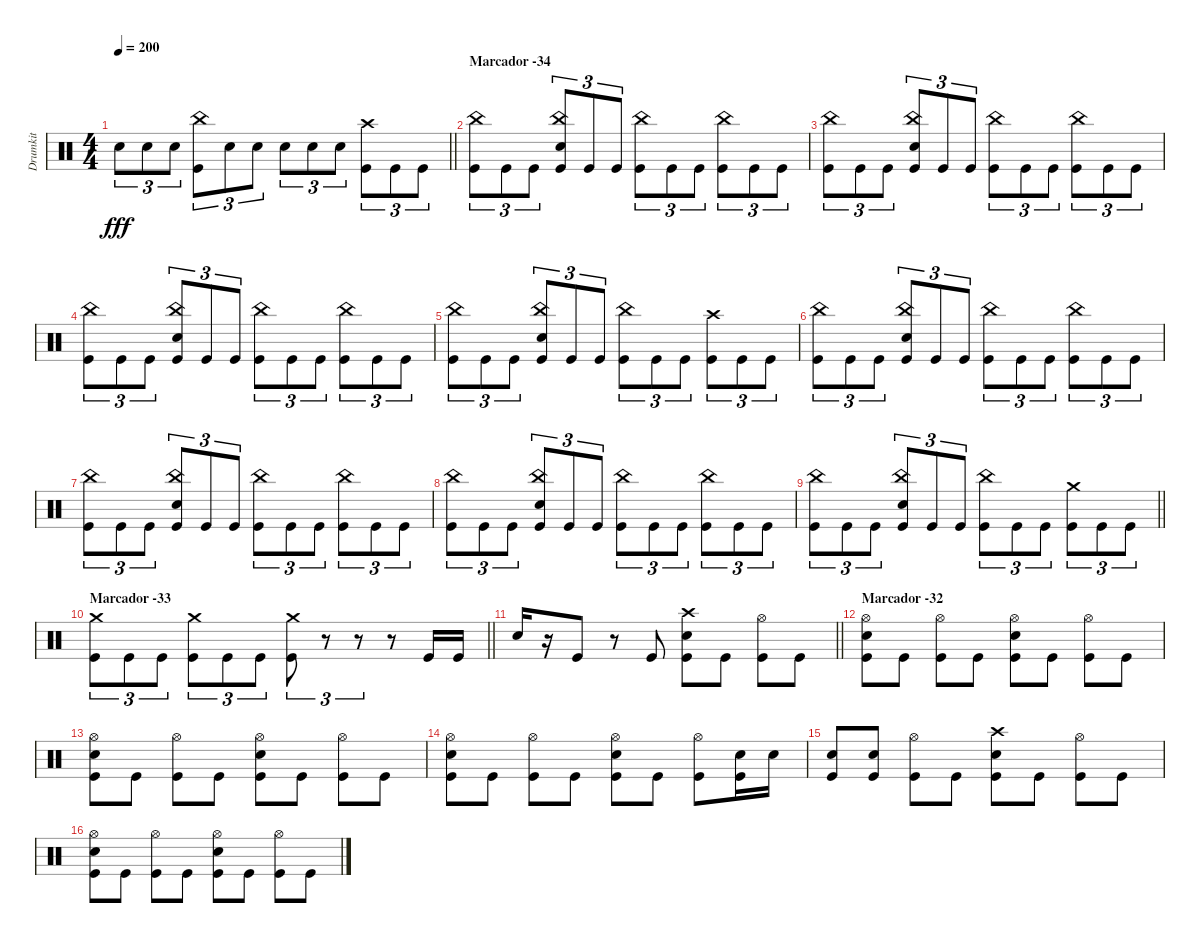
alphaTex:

\track ("Drumkit" "Drumkit") {instrument percussion}
\staff {score}
\articulation defaults
\ts (4 4)
\tempo 200
\clef neutral
\barLineRight lightlight
\ks c "Snare (hit) 2".8{tu (3 2) dy fff} "Snare (hit) 2".8{tu (3 2)} "Snare (hit) 2".8{tu (3 2)}
("China (hit)" "Kick (hit)").8{tu (3 2)} "Snare (hit) 2".8{tu (3 2)} "Snare (hit) 2".8{tu (3 2)} "Snare (hit) 2".8{tu (3 2)} "Snare (hit) 2".8{tu (3 2)} "Snare (hit) 2".8{tu (3 2)} ("Crash high (hit)" "Kick (hit)").8{tu (3 2)} "Kick (hit)".8{tu (3 2)} "Kick (hit)".8{tu (3 2)} |
\section ("" "Marcador -34")
("China (hit)" "Kick (hit)").8{tu (3 2)} "Kick (hit)".8{tu (3 2)} "Kick (hit)".8{tu (3 2)} ("China (hit)" "Snare (hit) 2" "Kick (hit)").8{tu (3 2)} "Kick (hit)".8{tu (3 2)} "Kick (hit)".8{tu (3 2)} ("China (hit)" "Kick (hit)").8{tu (3 2)} "Kick (hit)".8{tu (3 2)} "Kick (hit)".8{tu (3 2)} ("China (hit)" "Kick (hit)").8{tu (3 2)} "Kick (hit)".8{tu (3 2)} "Kick (hit)".8{tu (3 2)} |
("China (hit)" "Kick (hit)").8{tu (3 2)} "Kick (hit)".8{tu (3 2)} "Kick (hit)".8{tu (3 2)} ("China (hit)" "Snare (hit) 2" "Kick (hit)").8{tu (3 2)} "Kick (hit)".8{tu (3 2)} "Kick (hit)".8{tu (3 2)} ("China (hit)" "Kick (hit)").8{tu (3 2)} "Kick (hit)".8{tu (3 2)} "Kick (hit)".8{tu (3 2)} ("China (hit)" "Kick (hit)").8{tu (3 2)} "Kick (hit)".8{tu (3 2)} "Kick (hit)".8{tu (3 2)} |
("China (hit)" "Kick (hit)").8{tu (3 2)} "Kick (hit)".8{tu (3 2)} "Kick (hit)".8{tu (3 2)} ("China (hit)" "Snare (hit) 2" "Kick (hit)").8{tu (3 2)} "Kick (hit)".8{tu (3 2)} "Kick (hit)".8{tu (3 2)} ("China (hit)" "Kick (hit)").8{tu (3 2)} "Kick (hit)".8{tu (3 2)} "Kick (hit)".8{tu (3 2)} ("China (hit)" "Kick (hit)").8{tu (3 2)} "Kick (hit)".8{tu (3 2)} "Kick (hit)".8{tu (3 2)} |
("China (hit)" "Kick (hit)").8{tu (3 2)} "Kick (hit)".8{tu (3 2)} "Kick (hit)".8{tu (3 2)} ("China (hit)" "Snare (hit) 2" "Kick (hit)").8{tu (3 2)} "Kick (hit)".8{tu (3 2)} "Kick (hit)".8{tu (3 2)} ("China (hit)" "Kick (hit)").8{tu (3 2)} "Kick (hit)".8{tu (3 2)} "Kick (hit)".8{tu (3 2)} ("Crash high (hit)" "Kick (hit)").8{tu (3 2)} "Kick (hit)".8{tu (3 2)} "Kick (hit)".8{tu (3 2)} |
("China (hit)" "Kick (hit)").8{tu (3 2)} "Kick (hit)".8{tu (3 2)} "Kick (hit)".8{tu (3 2)} ("China (hit)" "Snare (hit) 2" "Kick (hit)").8{tu (3 2)} "Kick (hit)".8{tu (3 2)} "Kick (hit)".8{tu (3 2)} ("China (hit)" "Kick (hit)").8{tu (3 2)} "Kick (hit)".8{tu (3 2)} "Kick (hit)".8{tu (3 2)} ("China (hit)" "Kick (hit)").8{tu (3 2)} "Kick (hit)".8{tu (3 2)} "Kick (hit)".8{tu (3 2)} |
("China (hit)" "Kick (hit)").8{tu (3 2)} "Kick (hit)".8{tu (3 2)} "Kick (hit)".8{tu (3 2)} ("China (hit)" "Snare (hit) 2" "Kick (hit)").8{tu (3 2)} "Kick (hit)".8{tu (3 2)} "Kick (hit)".8{tu (3 2)} ("China (hit)" "Kick (hit)").8{tu (3 2)} "Kick (hit)".8{tu (3 2)} "Kick (hit)".8{tu (3 2)} ("China (hit)" "Kick (hit)").8{tu (3 2)} "Kick (hit)".8{tu (3 2)} "Kick (hit)".8{tu (3 2)} |
("China (hit)" "Kick (hit)").8{tu (3 2)} "Kick (hit)".8{tu (3 2)} "Kick (hit)".8{tu (3 2)} ("China (hit)" "Snare (hit) 2" "Kick (hit)").8{tu (3 2)} "Kick (hit)".8{tu (3 2)} "Kick (hit)".8{tu (3 2)} ("China (hit)" "Kick (hit)").8{tu (3 2)} "Kick (hit)".8{tu (3 2)} "Kick (hit)".8{tu (3 2)} ("China (hit)" "Kick (hit)").8{tu (3 2)} "Kick (hit)".8{tu (3 2)} "Kick (hit)".8{tu (3 2)} |
\barLineRight lightlight
("China (hit)" "Kick (hit)").8{tu (3 2)} "Kick (hit)".8{tu (3 2)} "Kick (hit)".8{tu (3 2)} ("China (hit)" "Snare (hit) 2" "Kick (hit)").8{tu (3 2)} "Kick (hit)".8{tu (3 2)} "Kick (hit)".8{tu (3 2)} ("China (hit)" "Kick (hit)").8{tu (3 2)} "Kick (hit)".8{tu (3 2)} "Kick (hit)".8{tu (3 2)} ("Crash medium (hit)" "Kick (hit)").8{tu (3 2)} "Kick (hit)".8{tu (3 2)} "Kick (hit)".8{tu (3 2)} |
\section ("" "Marcador -33")
\barLineRight lightlight
("Crash medium (hit)" "Kick (hit)").8{tu (3 2)} "Kick (hit)".8{tu (3 2)} "Kick (hit)".8{tu (3 2)} ("Crash medium (hit)" "Kick (hit)").8{tu (3 2)} "Kick (hit)".8{tu (3 2)} "Kick (hit)".8{tu (3 2)} ("Crash medium (hit)" "Kick (hit)").8{tu (3 2)} r.8{tu (3 2)} r.8{tu (3 2)} r.8 "Kick (hit)".16 "Kick (hit)".16 |
\barLineRight lightlight "Snare (hit) 2".16
r.16 "Kick (hit)".8 r.8 "Kick (hit)".8 ("Crash high (hit)" "Snare (hit) 2" "Kick (hit)").8 "Kick (hit)".8 ("Hi-Hat (open)" "Kick (hit)").8 "Kick (hit)".8 |
\section ("" "Marcador -32")
("Hi-Hat (open)" "Snare (hit) 2" "Kick (hit)").8 "Kick (hit)".8 ("Hi-Hat (open)" "Kick (hit)").8 "Kick (hit)".8 ("Hi-Hat (open)" "Snare (hit) 2" "Kick (hit)").8 "Kick (hit)".8 ("Hi-Hat (open)" "Kick (hit)").8 "Kick (hit)".8 |
("Hi-Hat (open)" "Snare (hit) 2" "Kick (hit)").8 "Kick (hit)".8 ("Hi-Hat (open)" "Kick (hit)").8 "Kick (hit)".8 ("Hi-Hat (open)" "Snare (hit) 2" "Kick (hit)").8 "Kick (hit)".8 ("Hi-Hat (open)" "Kick (hit)").8 "Kick (hit)".8 |
("Hi-Hat (open)" "Snare (hit) 2" "Kick (hit)").8 "Kick (hit)".8 ("Hi-Hat (open)" "Kick (hit)").8 "Kick (hit)".8 ("Hi-Hat (open)" "Snare (hit) 2" "Kick (hit)").8 "Kick (hit)".8 ("Hi-Hat (open)" "Kick (hit)").8 ("Snare (hit) 2" "Kick (hit)").16 "Snare (hit) 2".16 |
("Snare (hit) 2" "Kick (hit)").8 ("Snare (hit) 2" "Kick (hit)").8 ("Hi-Hat (open)" "Kick (hit)").8 "Kick (hit)".8 ("Crash high (hit)" "Snare (hit) 2" "Kick (hit)").8 "Kick (hit)".8 ("Hi-Hat (open)" "Kick (hit)").8 "Kick (hit)".8 |
("Hi-Hat (open)" "Snare (hit) 2" "Kick (hit)").8 "Kick (hit)".8 ("Hi-Hat (open)" "Kick (hit)").8 "Kick (hit)".8 ("Hi-Hat (open)" "Snare (hit) 2" "Kick (hit)").8 "Kick (hit)".8 ("Hi-Hat (open)" "Kick (hit)").8 "Kick (hit)".8
